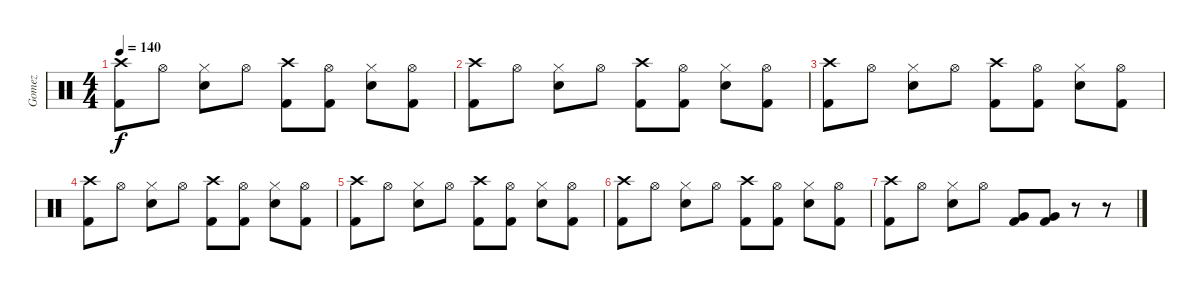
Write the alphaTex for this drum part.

\track ("Gomez" "Gomez") {instrument percussion}
\staff {score}
\articulation defaults
\ts (4 4)
\tempo 140
\clef neutral
\ks c
("Crash high (hit)" "Kick (hit) 2").8{dy f} "Hi-Hat (open)".8 ("Hi-Hat (closed)" "Electric Snare (hit)").8 "Hi-Hat (open)".8 ("Crash high (hit)" "Kick (hit) 2").8 ("Hi-Hat (open)" "Kick (hit) 2").8 ("Hi-Hat (closed)" "Electric Snare (hit)").8 ("Hi-Hat (open)" "Kick (hit) 2").8 |
("Crash high (hit)" "Kick (hit) 2").8 "Hi-Hat (open)".8 ("Hi-Hat (closed)" "Electric Snare (hit)").8 "Hi-Hat (open)".8 ("Crash high (hit)" "Kick (hit) 2").8 ("Hi-Hat (open)" "Kick (hit) 2").8 ("Hi-Hat (closed)" "Electric Snare (hit)").8 ("Hi-Hat (open)" "Kick (hit) 2").8 |
("Crash high (hit)" "Kick (hit) 2").8 "Hi-Hat (open)".8 ("Hi-Hat (closed)" "Electric Snare (hit)").8 "Hi-Hat (open)".8 ("Crash high (hit)" "Kick (hit) 2").8 ("Hi-Hat (open)" "Kick (hit) 2").8 ("Hi-Hat (closed)" "Electric Snare (hit)").8 ("Hi-Hat (open)" "Kick (hit) 2").8 |
("Crash high (hit)" "Kick (hit) 2").8 "Hi-Hat (open)".8 ("Hi-Hat (closed)" "Electric Snare (hit)").8 "Hi-Hat (open)".8 ("Crash high (hit)" "Kick (hit) 2").8 ("Hi-Hat (open)" "Kick (hit) 2").8 ("Hi-Hat (closed)" "Electric Snare (hit)").8 ("Hi-Hat (open)" "Kick (hit) 2").8 |
("Crash high (hit)" "Kick (hit) 2").8 "Hi-Hat (open)".8 ("Hi-Hat (closed)" "Electric Snare (hit)").8 "Hi-Hat (open)".8 ("Crash high (hit)" "Kick (hit) 2").8 ("Hi-Hat (open)" "Kick (hit) 2").8 ("Hi-Hat (closed)" "Electric Snare (hit)").8 ("Hi-Hat (open)" "Kick (hit) 2").8 |
("Crash high (hit)" "Kick (hit) 2").8 "Hi-Hat (open)".8 ("Hi-Hat (closed)" "Electric Snare (hit)").8 "Hi-Hat (open)".8 ("Crash high (hit)" "Kick (hit) 2").8 ("Hi-Hat (open)" "Kick (hit) 2").8 ("Hi-Hat (closed)" "Electric Snare (hit)").8 ("Hi-Hat (open)" "Kick (hit) 2").8 |
("Crash high (hit)" "Kick (hit) 2").8 "Hi-Hat (open)".8 ("Hi-Hat (closed)" "Electric Snare (hit)").8 "Hi-Hat (open)".8 ("Very Low Tom (hit)" "Kick (hit) 2").8 ("Very Low Tom (hit)" "Kick (hit) 2").8 r.8 r.8
